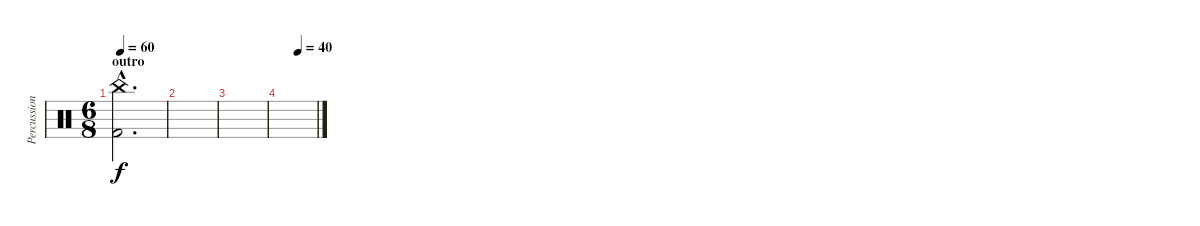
\track ("Percussions" "Percussion") {instrument percussion}
\staff {score}
\articulation defaults
\ts (6 8)
\section ("" "outro")
\tempo 60
\clef neutral
\ks c
("China (hit)"{hac} "Kick (hit) 2"{hac}).2{d dy f} |
|
|
\tempo (40 0.5)
